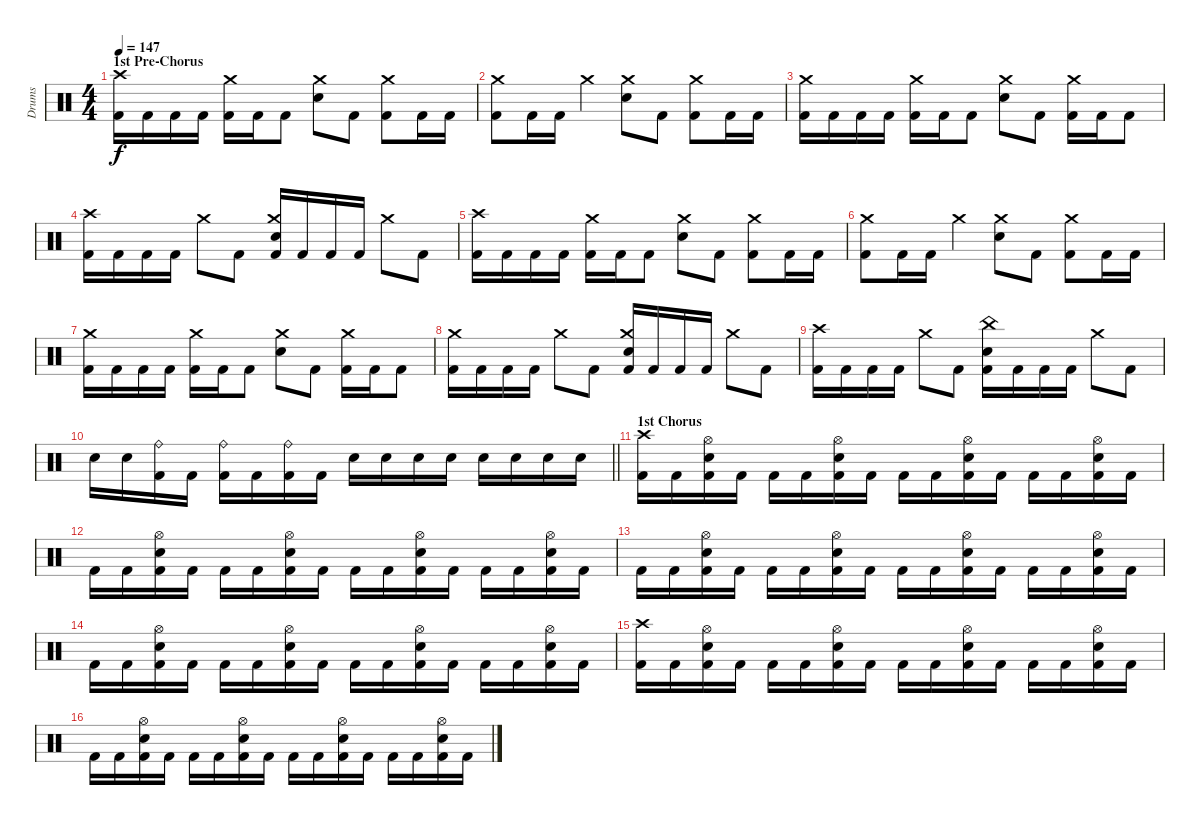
\track ("Drums" "Drums") {instrument percussion}
\staff {score}
\articulation defaults
\ts (4 4)
\section ("" "1st Pre-Chorus")
\tempo 147
\clef neutral
\ks c
("Crash high (hit)" "Kick (hit) 2").16{dy f} "Kick (hit) 2".16 "Kick (hit) 2".16 "Kick (hit) 2".16 ("Crash medium (hit)" "Kick (hit) 2").16 "Kick (hit) 2".16 "Kick (hit) 2".8 ("Crash medium (hit)" "Snare (hit) 2").8 "Kick (hit) 2".8 ("Crash medium (hit)" "Kick (hit) 2").8 "Kick (hit) 2".16 "Kick (hit) 2".16 |
("Crash medium (hit)" "Kick (hit) 2").8 "Kick (hit) 2".16 "Kick (hit) 2".16 "Crash medium (hit)".4 ("Crash medium (hit)" "Snare (hit) 2").8 "Kick (hit) 2".8 ("Crash medium (hit)" "Kick (hit) 2").8 "Kick (hit) 2".16 "Kick (hit) 2".16 |
("Crash medium (hit)" "Kick (hit) 2").16 "Kick (hit) 2".16 "Kick (hit) 2".16 "Kick (hit) 2".16 ("Crash medium (hit)" "Kick (hit) 2").16 "Kick (hit) 2".16 "Kick (hit) 2".8 ("Crash medium (hit)" "Snare (hit) 2").8 "Kick (hit) 2".8 ("Crash medium (hit)" "Kick (hit) 2").16 "Kick (hit) 2".16 "Kick (hit) 2".8 |
("Crash high (hit)" "Kick (hit) 2").16 "Kick (hit) 2".16 "Kick (hit) 2".16 "Kick (hit) 2".16 "Crash medium (hit)".8 "Kick (hit) 2".8 ("Crash medium (hit)" "Snare (hit) 2" "Kick (hit) 2").16 "Kick (hit) 2".16 "Kick (hit) 2".16 "Kick (hit) 2".16 "Crash medium (hit)".8 "Kick (hit) 2".8 |
("Crash high (hit)" "Kick (hit) 2").16 "Kick (hit) 2".16 "Kick (hit) 2".16 "Kick (hit) 2".16 ("Crash medium (hit)" "Kick (hit) 2").16 "Kick (hit) 2".16 "Kick (hit) 2".8 ("Crash medium (hit)" "Snare (hit) 2").8 "Kick (hit) 2".8 ("Crash medium (hit)" "Kick (hit) 2").8 "Kick (hit) 2".16 "Kick (hit) 2".16 |
("Crash medium (hit)" "Kick (hit) 2").8 "Kick (hit) 2".16 "Kick (hit) 2".16 "Crash medium (hit)".4 ("Crash medium (hit)" "Snare (hit) 2").8 "Kick (hit) 2".8 ("Crash medium (hit)" "Kick (hit) 2").8 "Kick (hit) 2".16 "Kick (hit) 2".16 |
("Crash medium (hit)" "Kick (hit) 2").16 "Kick (hit) 2".16 "Kick (hit) 2".16 "Kick (hit) 2".16 ("Crash medium (hit)" "Kick (hit) 2").16 "Kick (hit) 2".16 "Kick (hit) 2".8 ("Crash medium (hit)" "Snare (hit) 2").8 "Kick (hit) 2".8 ("Crash medium (hit)" "Kick (hit) 2").16 "Kick (hit) 2".16 "Kick (hit) 2".8 |
("Crash medium (hit)" "Kick (hit) 2").16 "Kick (hit) 2".16 "Kick (hit) 2".16 "Kick (hit) 2".16 "Crash medium (hit)".8 "Kick (hit) 2".8 ("Crash medium (hit)" "Snare (hit) 2" "Kick (hit) 2").16 "Kick (hit) 2".16 "Kick (hit) 2".16 "Kick (hit) 2".16 "Crash medium (hit)".8 "Kick (hit) 2".8 |
("Crash high (hit)" "Kick (hit) 2").16 "Kick (hit) 2".16 "Kick (hit) 2".16 "Kick (hit) 2".16 "Crash medium (hit)".8 "Kick (hit) 2".8 ("China (hit)" "Snare (hit) 2" "Kick (hit) 2").16 "Kick (hit) 2".16 "Kick (hit) 2".16 "Kick (hit) 2".16 "Crash medium (hit)".8 "Kick (hit) 2".8 |
\barLineRight lightlight "Snare (hit) 2".16 "Snare (hit) 2".16
("Ride (bell)" "Kick (hit) 2").16 "Kick (hit) 2".16 ("Ride (bell)" "Kick (hit) 2").16 "Kick (hit) 2".16 ("Ride (bell)" "Kick (hit) 2").16 "Kick (hit) 2".16 "Snare (hit) 2".16 "Snare (hit) 2".16 "Snare (hit) 2".16 "Snare (hit) 2".16 "Snare (hit) 2".16 "Snare (hit) 2".16 "Snare (hit) 2".16 "Snare (hit) 2".16 |
\section ("" "1st Chorus")
("Crash high (hit)" "Kick (hit) 2").16 "Kick (hit) 2".16 ("Hi-Hat (open)" "Snare (hit) 2" "Kick (hit) 2").16 "Kick (hit) 2".16 "Kick (hit) 2".16 "Kick (hit) 2".16 ("Hi-Hat (open)" "Snare (hit) 2" "Kick (hit) 2").16 "Kick (hit) 2".16 "Kick (hit) 2".16 "Kick (hit) 2".16 ("Hi-Hat (open)" "Snare (hit) 2" "Kick (hit) 2").16 "Kick (hit) 2".16 "Kick (hit) 2".16 "Kick (hit) 2".16 ("Hi-Hat (open)" "Snare (hit) 2" "Kick (hit) 2").16 "Kick (hit) 2".16 |
"Kick (hit) 2".16 "Kick (hit) 2".16 ("Hi-Hat (open)" "Snare (hit) 2" "Kick (hit) 2").16 "Kick (hit) 2".16 "Kick (hit) 2".16 "Kick (hit) 2".16 ("Hi-Hat (open)" "Snare (hit) 2" "Kick (hit) 2").16 "Kick (hit) 2".16 "Kick (hit) 2".16 "Kick (hit) 2".16 ("Hi-Hat (open)" "Snare (hit) 2" "Kick (hit) 2").16 "Kick (hit) 2".16 "Kick (hit) 2".16 "Kick (hit) 2".16 ("Hi-Hat (open)" "Snare (hit) 2" "Kick (hit) 2").16 "Kick (hit) 2".16 |
"Kick (hit) 2".16 "Kick (hit) 2".16 ("Hi-Hat (open)" "Snare (hit) 2" "Kick (hit) 2").16 "Kick (hit) 2".16 "Kick (hit) 2".16 "Kick (hit) 2".16 ("Hi-Hat (open)" "Snare (hit) 2" "Kick (hit) 2").16 "Kick (hit) 2".16 "Kick (hit) 2".16 "Kick (hit) 2".16 ("Hi-Hat (open)" "Snare (hit) 2" "Kick (hit) 2").16 "Kick (hit) 2".16 "Kick (hit) 2".16 "Kick (hit) 2".16 ("Hi-Hat (open)" "Snare (hit) 2" "Kick (hit) 2").16 "Kick (hit) 2".16 |
"Kick (hit) 2".16 "Kick (hit) 2".16 ("Hi-Hat (open)" "Snare (hit) 2" "Kick (hit) 2").16 "Kick (hit) 2".16 "Kick (hit) 2".16 "Kick (hit) 2".16 ("Hi-Hat (open)" "Snare (hit) 2" "Kick (hit) 2").16 "Kick (hit) 2".16 "Kick (hit) 2".16 "Kick (hit) 2".16 ("Hi-Hat (open)" "Snare (hit) 2" "Kick (hit) 2").16 "Kick (hit) 2".16 "Kick (hit) 2".16 "Kick (hit) 2".16 ("Hi-Hat (open)" "Snare (hit) 2" "Kick (hit) 2").16 "Kick (hit) 2".16 |
("Crash high (hit)" "Kick (hit) 2").16 "Kick (hit) 2".16 ("Hi-Hat (open)" "Snare (hit) 2" "Kick (hit) 2").16 "Kick (hit) 2".16 "Kick (hit) 2".16 "Kick (hit) 2".16 ("Hi-Hat (open)" "Snare (hit) 2" "Kick (hit) 2").16 "Kick (hit) 2".16 "Kick (hit) 2".16 "Kick (hit) 2".16 ("Hi-Hat (open)" "Snare (hit) 2" "Kick (hit) 2").16 "Kick (hit) 2".16 "Kick (hit) 2".16 "Kick (hit) 2".16 ("Hi-Hat (open)" "Snare (hit) 2" "Kick (hit) 2").16 "Kick (hit) 2".16 |
"Kick (hit) 2".16 "Kick (hit) 2".16 ("Hi-Hat (open)" "Snare (hit) 2" "Kick (hit) 2").16 "Kick (hit) 2".16 "Kick (hit) 2".16 "Kick (hit) 2".16 ("Hi-Hat (open)" "Snare (hit) 2" "Kick (hit) 2").16 "Kick (hit) 2".16 "Kick (hit) 2".16 "Kick (hit) 2".16 ("Hi-Hat (open)" "Snare (hit) 2" "Kick (hit) 2").16 "Kick (hit) 2".16 "Kick (hit) 2".16 "Kick (hit) 2".16 ("Hi-Hat (open)" "Snare (hit) 2" "Kick (hit) 2").16 "Kick (hit) 2".16
